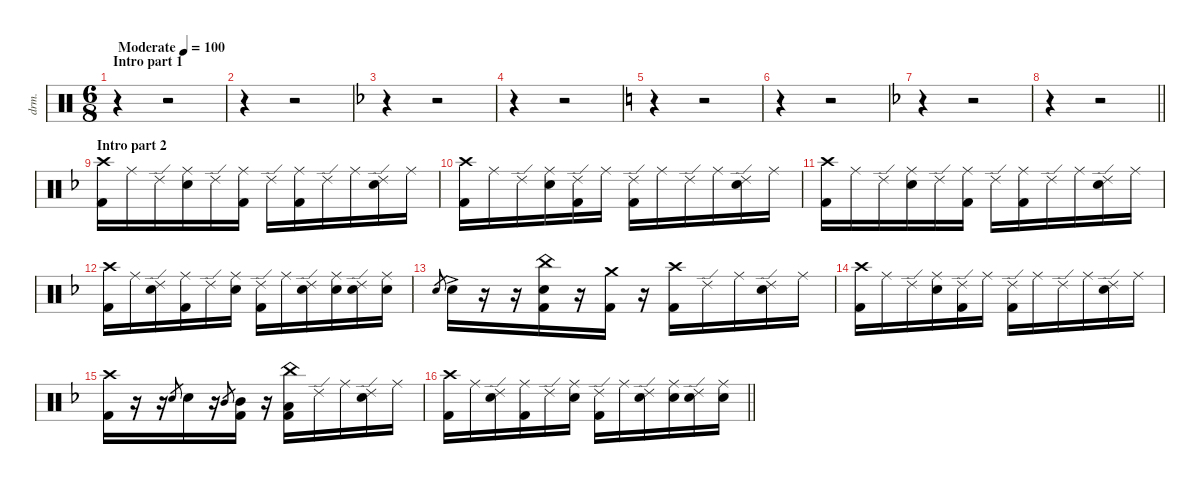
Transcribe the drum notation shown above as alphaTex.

\defaultSystemsLayout 4
\hideDynamics
\bracketExtendMode nobrackets
\otherSystemsTrackNameOrientation horizontal
\track ("Percussions" "drm.") {instrument percussion}
\staff {score}
\articulation defaults
\ts (6 8)
\beaming (8 3 3)
\section ("" "Intro part 1")
\tempo (100 "Moderate")
\clef neutral
\ks c
r.4{dy f} r.2 |
r.4 r.2 |
\ks dminor
r.4 r.2 |
r.4 r.2 |
\ks c
r.4 r.2 |
r.4 r.2 |
\ks dminor
r.4 r.2 |
\barLineRight lightlight
r.4 r.2 |
\section ("" "Intro part 2")
("Crash high (hit)"{acc forcenatural} "Kick (hit) 2"{acc forcenatural}).16 "Ride (middle)"{acc forcenatural}.16 "Ride (edge) 2"{acc forcenatural}.16 ("Ride (middle)"{acc forcenatural} "Snare (hit) 2"{acc forcenatural}).16 "Ride (edge) 2"{acc forcenatural}.16 ("Ride (middle)"{acc forcenatural} "Kick (hit) 2"{acc forcenatural}).16 "Ride (edge) 2"{acc forcenatural}.16 ("Ride (middle)"{acc forcenatural} "Kick (hit) 2"{acc forcenatural}).16 "Ride (edge) 2"{acc forcenatural}.16 "Ride (middle)"{acc forcenatural}.16 ("Ride (edge) 2"{acc forcenatural} "Snare (hit) 2"{acc forcenatural}).16 "Ride (middle)"{acc forcenatural}.16 |
("Crash high (hit)"{acc forcenatural} "Kick (hit) 2"{acc forcenatural}).16 "Ride (middle)"{acc forcenatural}.16 "Ride (edge) 2"{acc forcenatural}.16 ("Ride (middle)"{acc forcenatural} "Snare (hit) 2"{acc forcenatural}).16 ("Ride (edge) 2"{acc forcenatural} "Kick (hit) 2"{acc forcenatural}).16 "Ride (middle)"{acc forcenatural}.16 ("Ride (edge) 2"{acc forcenatural} "Kick (hit) 2"{acc forcenatural}).16 "Ride (middle)"{acc forcenatural}.16 "Ride (edge) 2"{acc forcenatural}.16 "Ride (middle)"{acc forcenatural}.16 ("Ride (edge) 2"{acc forcenatural} "Snare (hit) 2"{acc forcenatural}).16 "Ride (middle)"{acc forcenatural}.16 |
("Crash high (hit)"{acc forcenatural} "Kick (hit) 2"{acc forcenatural}).16 "Ride (middle)"{acc forcenatural}.16 "Ride (edge) 2"{acc forcenatural}.16 ("Ride (middle)"{acc forcenatural} "Snare (hit) 2"{acc forcenatural}).16 "Ride (edge) 2"{acc forcenatural}.16 ("Ride (middle)"{acc forcenatural} "Kick (hit) 2"{acc forcenatural}).16 "Ride (edge) 2"{acc forcenatural}.16 ("Ride (middle)"{acc forcenatural} "Kick (hit) 2"{acc forcenatural}).16 "Ride (edge) 2"{acc forcenatural}.16 "Ride (middle)"{acc forcenatural}.16 ("Ride (edge) 2"{acc forcenatural} "Snare (hit) 2"{acc forcenatural}).16 "Ride (middle)"{acc forcenatural}.16 |
("Crash high (hit)"{acc forcenatural} "Kick (hit) 2"{acc forcenatural}).16 "Ride (middle)"{acc forcenatural}.16 ("Ride (edge) 2"{acc forcenatural} "Snare (hit) 2"{acc forcenatural}).16 ("Ride (middle)"{acc forcenatural} "Kick (hit) 2"{acc forcenatural}).16 "Ride (edge) 2"{acc forcenatural}.16 ("Ride (middle)"{acc forcenatural} "Snare (hit) 2"{acc forcenatural}).16 ("Ride (edge) 2"{acc forcenatural} "Kick (hit) 2"{acc forcenatural}).16 "Ride (middle)"{acc forcenatural}.16 ("Ride (edge) 2"{acc forcenatural} "Snare (hit) 2"{acc forcenatural}).16 ("Ride (middle)"{acc forcenatural} "Snare (hit) 2"{acc forcenatural}).16 ("Ride (edge) 2"{acc forcenatural} "Snare (hit) 2"{acc forcenatural}).16 ("Ride (middle)"{acc forcenatural} "Snare (hit) 2"{acc forcenatural}).16 |
"Electric Snare (hit)"{acc forcenatural}.8{gr dy mp} "Snare (hit) 2"{ac acc forcenatural}.16{dy ff} r.16 r.16 ("China (hit)"{acc forcenatural} "Kick (hit) 2"{acc forcenatural} "Snare (hit) 2"{acc forcenatural}).16{dy f} r.16 ("Kick (hit) 2"{acc forcenatural} "Crash medium (hit)"{acc forcenatural}).16 r.16 ("Crash high (hit)"{acc forcenatural} "Kick (hit) 2"{acc forcenatural}).16 "Ride (edge) 2"{acc forcenatural}.16 "Ride (middle)"{acc forcenatural}.16 ("Ride (edge) 2"{acc forcenatural} "Snare (hit) 2"{acc forcenatural}).16 "Ride (middle)"{acc forcenatural}.16 |
("Crash high (hit)"{acc forcenatural} "Kick (hit) 2"{acc forcenatural}).16 "Ride (middle)"{acc forcenatural}.16 "Ride (edge) 2"{acc forcenatural}.16 ("Ride (middle)"{acc forcenatural} "Snare (hit) 2"{acc forcenatural}).16 ("Ride (edge) 2"{acc forcenatural} "Kick (hit) 2"{acc forcenatural}).16 "Ride (middle)"{acc forcenatural}.16 ("Ride (edge) 2"{acc forcenatural} "Kick (hit) 2"{acc forcenatural}).16 "Ride (middle)"{acc forcenatural}.16 "Ride (edge) 2"{acc forcenatural}.16 "Ride (middle)"{acc forcenatural}.16 ("Ride (edge) 2"{acc forcenatural} "Snare (hit) 2"{acc forcenatural}).16 "Ride (middle)"{acc forcenatural}.16 |
("Crash high (hit)"{acc forcenatural} "Kick (hit) 2"{acc forcenatural}).16 r.16 r.16 "Electric Snare (hit)"{acc forcenatural}.8{gr dy mf} "Snare (hit) 2"{acc forcenatural}.16{dy f} r.16 "Mid Tom (hit)"{acc forcenatural}.8{gr dy mf} ("Mid Tom (hit)"{acc forcenatural} "Kick (hit) 2"{acc forcenatural}).16{dy f} r.16 ("China (hit)"{acc forcenatural} "Kick (hit) 2"{acc forcenatural} "Low Floor Tom (hit)"{acc forcenatural}).16 "Ride (edge) 2"{acc forcenatural}.16 "Ride (middle)"{acc forcenatural}.16 ("Ride (edge) 2"{acc forcenatural} "Snare (hit) 2"{acc forcenatural}).16 "Ride (middle)"{acc forcenatural}.16 |
\barLineRight lightlight
("Crash high (hit)"{acc forcenatural} "Kick (hit) 2"{acc forcenatural}).16 "Ride (middle)"{acc forcenatural}.16 ("Ride (edge) 2"{acc forcenatural} "Snare (hit) 2"{acc forcenatural}).16 ("Ride (middle)"{acc forcenatural} "Kick (hit) 2"{acc forcenatural}).16 "Ride (edge) 2"{acc forcenatural}.16 ("Ride (middle)"{acc forcenatural} "Snare (hit) 2"{acc forcenatural}).16 ("Ride (edge) 2"{acc forcenatural} "Kick (hit) 2"{acc forcenatural}).16 "Ride (middle)"{acc forcenatural}.16 ("Ride (edge) 2"{acc forcenatural} "Snare (hit) 2"{acc forcenatural}).16 ("Ride (middle)"{acc forcenatural} "Snare (hit) 2"{acc forcenatural}).16 ("Ride (edge) 2"{acc forcenatural} "Snare (hit) 2"{acc forcenatural}).16 ("Ride (middle)"{acc forcenatural} "Snare (hit) 2"{acc forcenatural}).16
